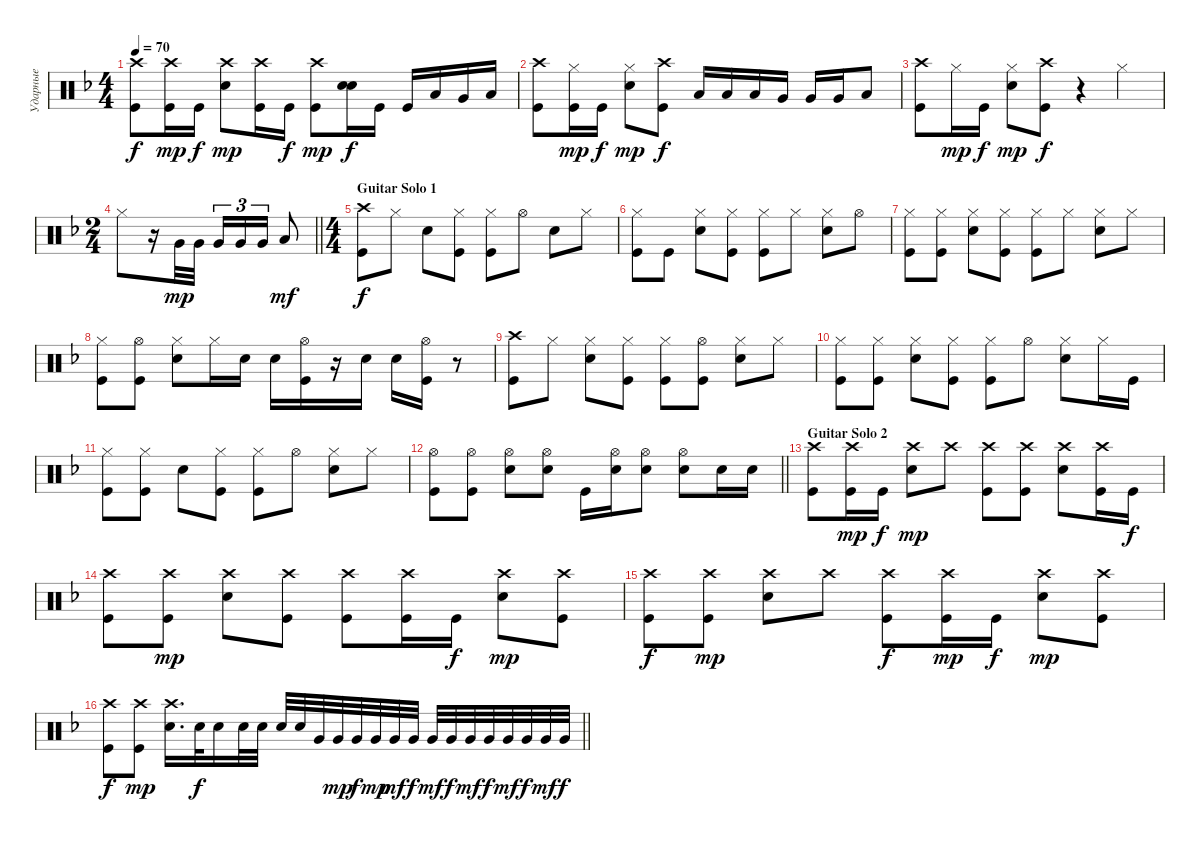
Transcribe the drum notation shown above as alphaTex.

\track ("Ударные" "Ударные") {instrument percussion}
\staff {score}
\articulation defaults
\ts (4 4)
\tempo 70
\clef neutral
\ks dminor
("Crash high (hit)" "Kick (hit)").8{dy f} ("Kick (hit)" "Crash high (hit)").16{dy mp} "Kick (hit)".16{dy f} ("Snare (hit) 2" "Crash high (hit)").8{dy mp} ("Kick (hit)" "Crash high (hit)").16 "Kick (hit)".16{dy f} ("Kick (hit)" "Crash high (hit)").8{dy mp} ("Snare (hit) 2" "Snare (hit) 2").16{bd 60 dy f} "Kick (hit)".16 "Kick (hit)".16 "Low Tom (hit)".16 "Very Low Tom (hit)".16 "Low Floor Tom (hit)".16 |
("Kick (hit)" "Crash high (hit)").8 ("Kick (hit)" "Hi-Hat (closed)").16{dy mp} "Kick (hit)".16{dy f} ("Snare (hit) 2" "Hi-Hat (closed)").8{dy mp} ("Kick (hit)" "Crash high (hit)").8{dy f} "Low Tom (hit)".16 "Low Tom (hit)".16 "Low Tom (hit)".16 "Very Low Tom (hit)".16 "Very Low Tom (hit)".16 "Very Low Tom (hit)".16 "Low Floor Tom (hit)".8 |
("Kick (hit)" "Crash high (hit)").8 "Hi-Hat (closed)".16{dy mp} "Kick (hit)".16{dy f} ("Snare (hit) 2" "Hi-Hat (closed)").8{dy mp} ("Kick (hit)" "Crash high (hit)").8{dy f} r.4 "Hi-Hat (closed)".4 |
\ts (2 4)
\barLineRight lightlight "Hi-Hat (closed)".8
r.16 "Very Low Tom (hit)".32{dy mp} "Very Low Tom (hit)".32 "Very Low Tom (hit)".16{tu (3 2)} "Very Low Tom (hit)".16{tu (3 2)} "Very Low Tom (hit)".16{tu (3 2)} "Low Tom (hit)".8{dy mf} |
\ts (4 4)
\section ("" "Guitar Solo 1")
("Kick (hit)" "Crash high (hit)").8{dy f} "Hi-Hat (closed)".8 "Snare (hit) 2".8 ("Hi-Hat (closed)" "Kick (hit)").8 ("Kick (hit)" "Hi-Hat (closed)").8 "Hi-Hat (open)".8 "Snare (hit) 2".8 "Hi-Hat (closed)".8 |
("Hi-Hat (closed)" "Kick (hit)").8 "Kick (hit)".8 ("Snare (hit) 2" "Hi-Hat (closed)").8 ("Hi-Hat (closed)" "Kick (hit)").8 ("Hi-Hat (closed)" "Kick (hit)").8 "Hi-Hat (closed)".8 ("Hi-Hat (closed)" "Snare (hit) 2").8 "Hi-Hat (open)".8 |
("Hi-Hat (closed)" "Kick (hit)").8 ("Kick (hit)" "Hi-Hat (closed)").8 ("Snare (hit) 2" "Hi-Hat (closed)").8 ("Hi-Hat (closed)" "Kick (hit)").8 ("Hi-Hat (closed)" "Kick (hit)").8 "Hi-Hat (closed)".8 ("Hi-Hat (closed)" "Snare (hit) 2").8 "Hi-Hat (closed)".8 |
("Hi-Hat (closed)" "Kick (hit)").8 ("Kick (hit)" "Hi-Hat (open)").8 ("Snare (hit) 2" "Hi-Hat (closed)").8 "Hi-Hat (closed)".16 "Snare (hit) 2".16 "Snare (hit) 2".16 ("Kick (hit)" "Hi-Hat (open)").16 r.16 "Snare (hit) 2".16 "Snare (hit) 2".16 ("Hi-Hat (open)" "Kick (hit)").16 r.8 |
("Crash high (hit)" "Kick (hit)").8 "Hi-Hat (closed)".8 ("Snare (hit) 2" "Hi-Hat (closed)").8 ("Hi-Hat (closed)" "Kick (hit)").8 ("Hi-Hat (closed)" "Kick (hit)").8 ("Hi-Hat (open)" "Kick (hit)").8 ("Hi-Hat (closed)" "Snare (hit) 2").8 "Hi-Hat (closed)".8 |
("Hi-Hat (closed)" "Kick (hit)").8 ("Kick (hit)" "Hi-Hat (closed)").8 ("Snare (hit) 2" "Hi-Hat (closed)").8 ("Hi-Hat (closed)" "Kick (hit)").8 ("Hi-Hat (closed)" "Kick (hit)").8 "Hi-Hat (open)".8 ("Hi-Hat (closed)" "Snare (hit) 2").8 "Hi-Hat (closed)".16 "Kick (hit)".16 |
("Hi-Hat (closed)" "Kick (hit)").8 ("Kick (hit)" "Hi-Hat (closed)").8 "Snare (hit) 2".8 ("Hi-Hat (closed)" "Kick (hit)").8 ("Hi-Hat (closed)" "Kick (hit)").8 "Hi-Hat (open)".8 ("Hi-Hat (closed)" "Snare (hit) 2").8 "Hi-Hat (closed)".8 |
\barLineRight lightlight
("Kick (hit)" "Hi-Hat (open)").8 ("Kick (hit)" "Hi-Hat (open)").8 ("Snare (hit) 2" "Hi-Hat (open)").8 ("Snare (hit) 2" "Hi-Hat (open)").8 "Kick (hit)".16 ("Snare (hit) 2" "Hi-Hat (open)").16 ("Snare (hit) 2" "Hi-Hat (open)").8 ("Snare (hit) 2" "Hi-Hat (open)").8 "Snare (hit) 2".16 "Snare (hit) 2".16 |
\section ("" "Guitar Solo 2")
("Kick (hit)" "Crash high (hit)").8 ("Kick (hit)" "Crash high (hit)").16{dy mp} "Kick (hit)".16{dy f} ("Snare (hit) 2" "Crash high (hit)").8{dy mp} "Crash high (hit)".8 ("Kick (hit)" "Crash high (hit)").8 ("Kick (hit)" "Crash high (hit)").8 ("Snare (hit) 2" "Crash high (hit)").8 ("Kick (hit)" "Crash high (hit)").16 "Kick (hit)".16{dy f} |
("Kick (hit)" "Crash high (hit)").8 ("Kick (hit)" "Crash high (hit)").8{dy mp} ("Snare (hit) 2" "Crash high (hit)").8 ("Kick (hit)" "Crash high (hit)").8 ("Kick (hit)" "Crash high (hit)").8 ("Crash high (hit)" "Kick (hit)").16 "Kick (hit)".16{dy f} ("Snare (hit) 2" "Crash high (hit)").8{dy mp} ("Kick (hit)" "Crash high (hit)").8 |
("Kick (hit)" "Crash high (hit)").8{dy f} ("Kick (hit)" "Crash high (hit)").8{dy mp} ("Snare (hit) 2" "Crash high (hit)").8 "Crash high (hit)".8 ("Kick (hit)" "Crash high (hit)").8{dy f} ("Kick (hit)" "Crash high (hit)").16{dy mp} "Kick (hit)".16{dy f} ("Snare (hit) 2" "Crash high (hit)").8{dy mp} ("Kick (hit)" "Crash high (hit)").8 |
\barLineRight lightlight
("Kick (hit)" "Crash high (hit)").8{dy f} ("Kick (hit)" "Crash high (hit)").8{dy mp} ("Snare (hit) 2" "Crash high (hit)").16{d} "Snare (hit) 2".32{dy f} "Snare (hit) 2".16 "Snare (hit) 2".32 "Snare (hit) 2".32 "Snare (hit) 2".32 "Snare (hit) 2".32 "Very Low Tom (hit)".32 "Very Low Tom (hit)".32{dy mp} "Very Low Tom (hit)".32{dy f} "Very Low Tom (hit)".32{dy mp} "Very Low Tom (hit)".32{dy mf} "Very Low Tom (hit)".32{dy f} "Very Low Tom (hit)".32{dy mf} "Very Low Tom (hit)".32{dy f} "Very Low Tom (hit)".32{dy mf} "Very Low Tom (hit)".32{dy f} "Very Low Tom (hit)".32{dy mf} "Very Low Tom (hit)".32{dy f} "Very Low Tom (hit)".32{dy mf} "Very Low Tom (hit)".32{dy f}
